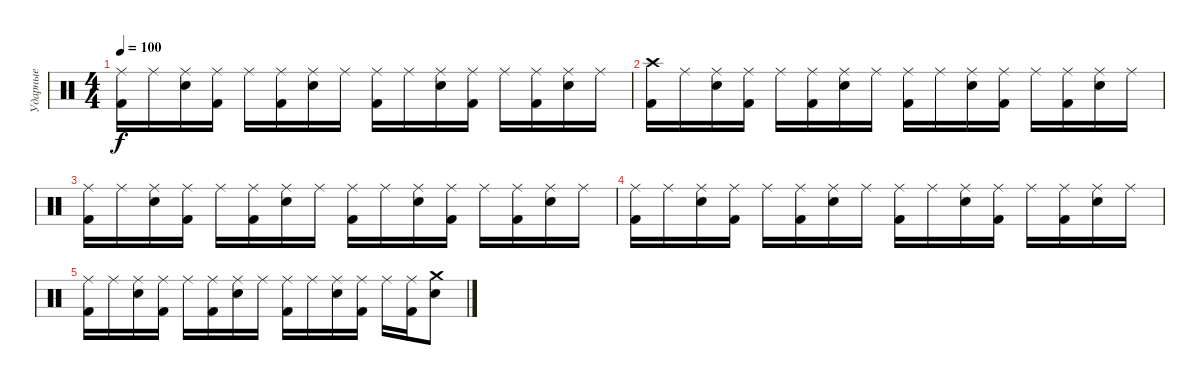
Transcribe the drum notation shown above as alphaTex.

\track ("Ударные" "Ударные") {instrument percussion}
\staff {score}
\articulation defaults
\ts (4 4)
\tempo 100
\clef neutral
\ks c
("Ride (middle)" "Kick (hit) 2").16{dy f} "Ride (middle)".16 ("Ride (middle)" "Electric Snare (hit)").16 ("Ride (middle)" "Kick (hit) 2").16 "Ride (middle)".16 ("Ride (middle)" "Kick (hit) 2").16 ("Ride (middle)" "Electric Snare (hit)").16 "Ride (middle)".16 ("Ride (middle)" "Kick (hit) 2").16 "Ride (middle)".16 ("Ride (middle)" "Electric Snare (hit)").16 ("Ride (middle)" "Kick (hit) 2").16 "Ride (middle)".16 ("Ride (middle)" "Kick (hit) 2").16 ("Ride (middle)" "Electric Snare (hit)").16 "Ride (middle)".16 |
("Crash high (hit)" "Kick (hit) 2").16{volume 0} "Ride (middle)".16 ("Ride (middle)" "Electric Snare (hit)").16 ("Ride (middle)" "Kick (hit) 2").16 "Ride (middle)".16 ("Ride (middle)" "Kick (hit) 2").16 ("Ride (middle)" "Electric Snare (hit)").16 "Ride (middle)".16 ("Ride (middle)" "Kick (hit) 2").16 "Ride (middle)".16 ("Ride (middle)" "Electric Snare (hit)").16 ("Ride (middle)" "Kick (hit) 2").16 "Ride (middle)".16 ("Ride (middle)" "Kick (hit) 2").16 ("Ride (middle)" "Electric Snare (hit)").16 "Ride (middle)".16 |
("Ride (middle)" "Kick (hit) 2").16 "Ride (middle)".16 ("Ride (middle)" "Electric Snare (hit)").16 ("Ride (middle)" "Kick (hit) 2").16 "Ride (middle)".16 ("Ride (middle)" "Kick (hit) 2").16 ("Ride (middle)" "Electric Snare (hit)").16 "Ride (middle)".16 ("Ride (middle)" "Kick (hit) 2").16 "Ride (middle)".16 ("Ride (middle)" "Electric Snare (hit)").16 ("Ride (middle)" "Kick (hit) 2").16 "Ride (middle)".16 ("Ride (middle)" "Kick (hit) 2").16 ("Ride (middle)" "Electric Snare (hit)").16 "Ride (middle)".16 |
("Ride (middle)" "Kick (hit) 2").16 "Ride (middle)".16 ("Ride (middle)" "Electric Snare (hit)").16 ("Ride (middle)" "Kick (hit) 2").16 "Ride (middle)".16 ("Ride (middle)" "Kick (hit) 2").16 ("Ride (middle)" "Electric Snare (hit)").16 "Ride (middle)".16 ("Ride (middle)" "Kick (hit) 2").16 "Ride (middle)".16 ("Ride (middle)" "Electric Snare (hit)").16 ("Ride (middle)" "Kick (hit) 2").16 "Ride (middle)".16 ("Ride (middle)" "Kick (hit) 2").16 ("Ride (middle)" "Electric Snare (hit)").16 "Ride (middle)".16 |
("Ride (middle)" "Kick (hit) 2").16 "Ride (middle)".16 ("Ride (middle)" "Electric Snare (hit)").16 ("Ride (middle)" "Kick (hit) 2").16 "Ride (middle)".16 ("Ride (middle)" "Kick (hit) 2").16 ("Ride (middle)" "Electric Snare (hit)").16 "Ride (middle)".16 ("Ride (middle)" "Kick (hit) 2").16 "Ride (middle)".16 ("Ride (middle)" "Electric Snare (hit)").16 ("Ride (middle)" "Kick (hit) 2").16 "Ride (middle)".16 ("Ride (middle)" "Kick (hit) 2").16 ("Crash medium (hit)" "Electric Snare (hit)").8
